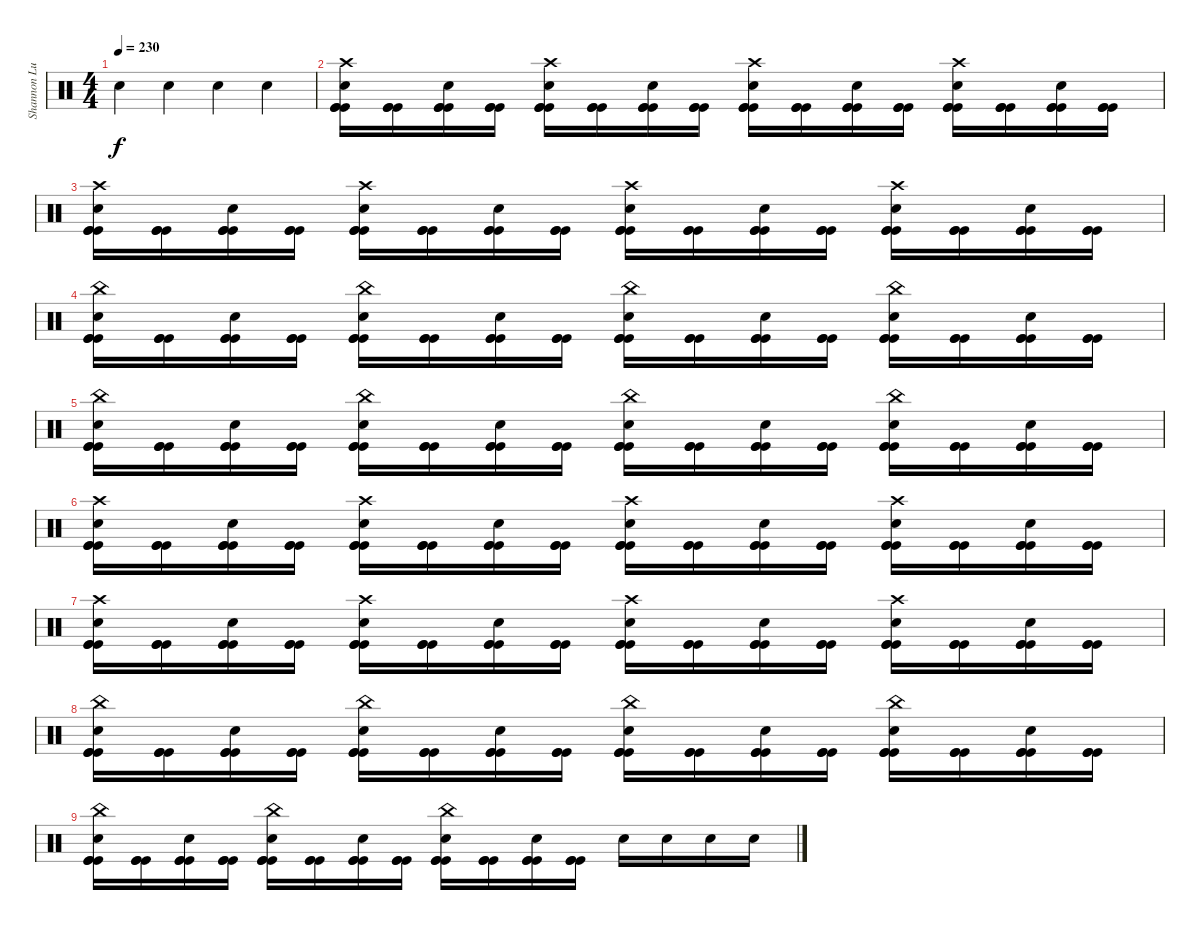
\track ("Shannon Lucas" "Shannon Lu") {instrument percussion}
\staff {score}
\articulation defaults
\ts (4 4)
\tempo 230
\clef neutral
\ks c "Electric Snare (hit)".4{dy f} "Electric Snare (hit)".4 "Electric Snare (hit)".4 "Electric Snare (hit)".4
|
("Kick (hit)" "Kick (hit)" "Kick (hit)" "Electric Snare (hit)" "Crash high (hit)").16 ("Kick (hit)" "Kick (hit)" "Kick (hit)").16 ("Kick (hit)" "Kick (hit)" "Kick (hit)" "Electric Snare (hit)").16 ("Kick (hit)" "Kick (hit)" "Kick (hit)").16 ("Kick (hit)" "Kick (hit)" "Kick (hit)" "Electric Snare (hit)" "Crash high (hit)").16 ("Kick (hit)" "Kick (hit)" "Kick (hit)").16 ("Kick (hit)" "Kick (hit)" "Kick (hit)" "Electric Snare (hit)").16 ("Kick (hit)" "Kick (hit)" "Kick (hit)").16 ("Kick (hit)" "Kick (hit)" "Kick (hit)" "Electric Snare (hit)" "Crash high (hit)").16 ("Kick (hit)" "Kick (hit)" "Kick (hit)").16 ("Kick (hit)" "Kick (hit)" "Kick (hit)" "Electric Snare (hit)").16 ("Kick (hit)" "Kick (hit)" "Kick (hit)").16 ("Kick (hit)" "Kick (hit)" "Kick (hit)" "Electric Snare (hit)" "Crash high (hit)").16 ("Kick (hit)" "Kick (hit)" "Kick (hit)").16 ("Kick (hit)" "Kick (hit)" "Kick (hit)" "Electric Snare (hit)").16 ("Kick (hit)" "Kick (hit)" "Kick (hit)").16 |
("Kick (hit)" "Kick (hit)" "Kick (hit)" "Electric Snare (hit)" "Crash high (hit)").16 ("Kick (hit)" "Kick (hit)" "Kick (hit)").16 ("Kick (hit)" "Kick (hit)" "Kick (hit)" "Electric Snare (hit)").16 ("Kick (hit)" "Kick (hit)" "Kick (hit)").16 ("Kick (hit)" "Kick (hit)" "Kick (hit)" "Electric Snare (hit)" "Crash high (hit)").16 ("Kick (hit)" "Kick (hit)" "Kick (hit)").16 ("Kick (hit)" "Kick (hit)" "Kick (hit)" "Electric Snare (hit)").16 ("Kick (hit)" "Kick (hit)" "Kick (hit)").16 ("Kick (hit)" "Kick (hit)" "Kick (hit)" "Electric Snare (hit)" "Crash high (hit)").16 ("Kick (hit)" "Kick (hit)" "Kick (hit)").16 ("Kick (hit)" "Kick (hit)" "Kick (hit)" "Electric Snare (hit)").16 ("Kick (hit)" "Kick (hit)" "Kick (hit)").16 ("Kick (hit)" "Kick (hit)" "Kick (hit)" "Electric Snare (hit)" "Crash high (hit)").16 ("Kick (hit)" "Kick (hit)" "Kick (hit)").16 ("Kick (hit)" "Kick (hit)" "Kick (hit)" "Electric Snare (hit)").16 ("Kick (hit)" "Kick (hit)" "Kick (hit)").16 |
("Kick (hit)" "Kick (hit)" "Kick (hit)" "Electric Snare (hit)" "China (hit)").16 ("Kick (hit)" "Kick (hit)" "Kick (hit)").16 ("Kick (hit)" "Kick (hit)" "Kick (hit)" "Electric Snare (hit)").16 ("Kick (hit)" "Kick (hit)" "Kick (hit)").16 ("Kick (hit)" "Kick (hit)" "Kick (hit)" "Electric Snare (hit)" "China (hit)").16 ("Kick (hit)" "Kick (hit)" "Kick (hit)").16 ("Kick (hit)" "Kick (hit)" "Kick (hit)" "Electric Snare (hit)").16 ("Kick (hit)" "Kick (hit)" "Kick (hit)").16 ("Kick (hit)" "Kick (hit)" "Kick (hit)" "Electric Snare (hit)" "China (hit)").16 ("Kick (hit)" "Kick (hit)" "Kick (hit)").16 ("Kick (hit)" "Kick (hit)" "Kick (hit)" "Electric Snare (hit)").16 ("Kick (hit)" "Kick (hit)" "Kick (hit)").16 ("Kick (hit)" "Kick (hit)" "Kick (hit)" "Electric Snare (hit)" "China (hit)").16 ("Kick (hit)" "Kick (hit)" "Kick (hit)").16 ("Kick (hit)" "Kick (hit)" "Kick (hit)" "Electric Snare (hit)").16 ("Kick (hit)" "Kick (hit)" "Kick (hit)").16 |
("Kick (hit)" "Kick (hit)" "Kick (hit)" "Electric Snare (hit)" "China (hit)").16 ("Kick (hit)" "Kick (hit)" "Kick (hit)").16 ("Kick (hit)" "Kick (hit)" "Kick (hit)" "Electric Snare (hit)").16 ("Kick (hit)" "Kick (hit)" "Kick (hit)").16 ("Kick (hit)" "Kick (hit)" "Kick (hit)" "Electric Snare (hit)" "China (hit)").16 ("Kick (hit)" "Kick (hit)" "Kick (hit)").16 ("Kick (hit)" "Kick (hit)" "Kick (hit)" "Electric Snare (hit)").16 ("Kick (hit)" "Kick (hit)" "Kick (hit)").16 ("Kick (hit)" "Kick (hit)" "Kick (hit)" "Electric Snare (hit)" "China (hit)").16 ("Kick (hit)" "Kick (hit)" "Kick (hit)").16 ("Kick (hit)" "Kick (hit)" "Kick (hit)" "Electric Snare (hit)").16 ("Kick (hit)" "Kick (hit)" "Kick (hit)").16 ("Kick (hit)" "Kick (hit)" "Kick (hit)" "Electric Snare (hit)" "China (hit)").16 ("Kick (hit)" "Kick (hit)" "Kick (hit)").16 ("Kick (hit)" "Kick (hit)" "Kick (hit)" "Electric Snare (hit)").16 ("Kick (hit)" "Kick (hit)" "Kick (hit)").16 |
("Kick (hit)" "Kick (hit)" "Kick (hit)" "Electric Snare (hit)" "Crash high (hit)").16 ("Kick (hit)" "Kick (hit)" "Kick (hit)").16 ("Kick (hit)" "Kick (hit)" "Kick (hit)" "Electric Snare (hit)").16 ("Kick (hit)" "Kick (hit)" "Kick (hit)").16 ("Kick (hit)" "Kick (hit)" "Kick (hit)" "Electric Snare (hit)" "Crash high (hit)").16 ("Kick (hit)" "Kick (hit)" "Kick (hit)").16 ("Kick (hit)" "Kick (hit)" "Kick (hit)" "Electric Snare (hit)").16 ("Kick (hit)" "Kick (hit)" "Kick (hit)").16 ("Kick (hit)" "Kick (hit)" "Kick (hit)" "Electric Snare (hit)" "Crash high (hit)").16 ("Kick (hit)" "Kick (hit)" "Kick (hit)").16 ("Kick (hit)" "Kick (hit)" "Kick (hit)" "Electric Snare (hit)").16 ("Kick (hit)" "Kick (hit)" "Kick (hit)").16 ("Kick (hit)" "Kick (hit)" "Kick (hit)" "Electric Snare (hit)" "Crash high (hit)").16 ("Kick (hit)" "Kick (hit)" "Kick (hit)").16 ("Kick (hit)" "Kick (hit)" "Kick (hit)" "Electric Snare (hit)").16 ("Kick (hit)" "Kick (hit)" "Kick (hit)").16 |
("Kick (hit)" "Kick (hit)" "Kick (hit)" "Electric Snare (hit)" "Crash high (hit)").16 ("Kick (hit)" "Kick (hit)" "Kick (hit)").16 ("Kick (hit)" "Kick (hit)" "Kick (hit)" "Electric Snare (hit)").16 ("Kick (hit)" "Kick (hit)" "Kick (hit)").16 ("Kick (hit)" "Kick (hit)" "Kick (hit)" "Electric Snare (hit)" "Crash high (hit)").16 ("Kick (hit)" "Kick (hit)" "Kick (hit)").16 ("Kick (hit)" "Kick (hit)" "Kick (hit)" "Electric Snare (hit)").16 ("Kick (hit)" "Kick (hit)" "Kick (hit)").16 ("Kick (hit)" "Kick (hit)" "Kick (hit)" "Electric Snare (hit)" "Crash high (hit)").16 ("Kick (hit)" "Kick (hit)" "Kick (hit)").16 ("Kick (hit)" "Kick (hit)" "Kick (hit)" "Electric Snare (hit)").16 ("Kick (hit)" "Kick (hit)" "Kick (hit)").16 ("Kick (hit)" "Kick (hit)" "Kick (hit)" "Electric Snare (hit)" "Crash high (hit)").16 ("Kick (hit)" "Kick (hit)" "Kick (hit)").16 ("Kick (hit)" "Kick (hit)" "Kick (hit)" "Electric Snare (hit)").16 ("Kick (hit)" "Kick (hit)" "Kick (hit)").16 |
("Kick (hit)" "Kick (hit)" "Kick (hit)" "Electric Snare (hit)" "China (hit)").16 ("Kick (hit)" "Kick (hit)" "Kick (hit)").16 ("Kick (hit)" "Kick (hit)" "Kick (hit)" "Electric Snare (hit)").16 ("Kick (hit)" "Kick (hit)" "Kick (hit)").16 ("Kick (hit)" "Kick (hit)" "Kick (hit)" "Electric Snare (hit)" "China (hit)").16 ("Kick (hit)" "Kick (hit)" "Kick (hit)").16 ("Kick (hit)" "Kick (hit)" "Kick (hit)" "Electric Snare (hit)").16 ("Kick (hit)" "Kick (hit)" "Kick (hit)").16 ("Kick (hit)" "Kick (hit)" "Kick (hit)" "Electric Snare (hit)" "China (hit)").16 ("Kick (hit)" "Kick (hit)" "Kick (hit)").16 ("Kick (hit)" "Kick (hit)" "Kick (hit)" "Electric Snare (hit)").16 ("Kick (hit)" "Kick (hit)" "Kick (hit)").16 ("Kick (hit)" "Kick (hit)" "Kick (hit)" "Electric Snare (hit)" "China (hit)").16 ("Kick (hit)" "Kick (hit)" "Kick (hit)").16 ("Kick (hit)" "Kick (hit)" "Kick (hit)" "Electric Snare (hit)").16 ("Kick (hit)" "Kick (hit)" "Kick (hit)").16 |
("Kick (hit)" "Kick (hit)" "Kick (hit)" "Electric Snare (hit)" "China (hit)").16 ("Kick (hit)" "Kick (hit)" "Kick (hit)").16 ("Kick (hit)" "Kick (hit)" "Kick (hit)" "Electric Snare (hit)").16 ("Kick (hit)" "Kick (hit)" "Kick (hit)").16 ("Kick (hit)" "Kick (hit)" "Kick (hit)" "Electric Snare (hit)" "China (hit)").16 ("Kick (hit)" "Kick (hit)" "Kick (hit)").16 ("Kick (hit)" "Kick (hit)" "Kick (hit)" "Electric Snare (hit)").16 ("Kick (hit)" "Kick (hit)" "Kick (hit)").16 ("Kick (hit)" "Kick (hit)" "Kick (hit)" "Electric Snare (hit)" "China (hit)").16 ("Kick (hit)" "Kick (hit)" "Kick (hit)").16 ("Kick (hit)" "Kick (hit)" "Kick (hit)" "Electric Snare (hit)").16 ("Kick (hit)" "Kick (hit)" "Kick (hit)").16 "Electric Snare (hit)".16 "Electric Snare (hit)".16 "Electric Snare (hit)".16 "Electric Snare (hit)".16
